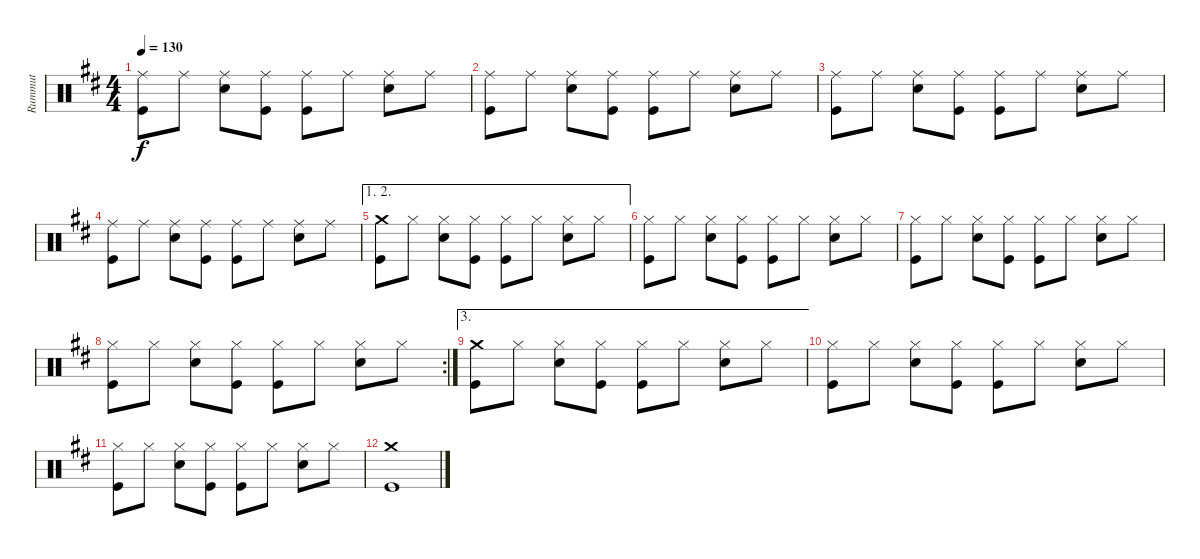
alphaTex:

\track ("Rummut" "Rummut") {instrument percussion}
\staff {score}
\articulation defaults
\ts (4 4)
\tempo 130
\clef neutral
\ks d
("Ride (middle)" "Kick (hit)").8{dy f} "Ride (middle)".8 ("Ride (middle)" "Electric Snare (hit)").8 ("Ride (middle)" "Kick (hit)").8 ("Ride (middle)" "Kick (hit)").8 "Ride (middle)".8 ("Ride (middle)" "Electric Snare (hit)").8 "Ride (middle)".8 |
("Ride (middle)" "Kick (hit)").8 "Ride (middle)".8 ("Ride (middle)" "Electric Snare (hit)").8 ("Ride (middle)" "Kick (hit)").8 ("Ride (middle)" "Kick (hit)").8 "Ride (middle)".8 ("Ride (middle)" "Electric Snare (hit)").8 "Ride (middle)".8 |
("Ride (middle)" "Kick (hit)").8 "Ride (middle)".8 ("Ride (middle)" "Electric Snare (hit)").8 ("Ride (middle)" "Kick (hit)").8 ("Ride (middle)" "Kick (hit)").8 "Ride (middle)".8 ("Ride (middle)" "Electric Snare (hit)").8 "Ride (middle)".8 |
("Ride (middle)" "Kick (hit)").8 "Ride (middle)".8 ("Ride (middle)" "Electric Snare (hit)").8 ("Ride (middle)" "Kick (hit)").8 ("Ride (middle)" "Kick (hit)").8 "Ride (middle)".8 ("Ride (middle)" "Electric Snare (hit)").8 "Ride (middle)".8 |
\ae (1 2)
("Crash medium (hit)" "Kick (hit)").8 "Hi-Hat (closed)".8 ("Hi-Hat (closed)" "Electric Snare (hit)").8 ("Hi-Hat (closed)" "Kick (hit)").8 ("Hi-Hat (closed)" "Kick (hit)").8 "Hi-Hat (closed)".8 ("Hi-Hat (closed)" "Electric Snare (hit)").8 "Hi-Hat (closed)".8 |
("Hi-Hat (closed)" "Kick (hit)").8 "Hi-Hat (closed)".8 ("Hi-Hat (closed)" "Electric Snare (hit)").8 ("Hi-Hat (closed)" "Kick (hit)").8 ("Hi-Hat (closed)" "Kick (hit)").8 "Hi-Hat (closed)".8 ("Hi-Hat (closed)" "Electric Snare (hit)").8 "Hi-Hat (closed)".8 |
("Hi-Hat (closed)" "Kick (hit)").8 "Hi-Hat (closed)".8 ("Hi-Hat (closed)" "Electric Snare (hit)").8 ("Hi-Hat (closed)" "Kick (hit)").8 ("Hi-Hat (closed)" "Kick (hit)").8 "Hi-Hat (closed)".8 ("Hi-Hat (closed)" "Electric Snare (hit)").8 "Hi-Hat (closed)".8 |
\rc 2
("Hi-Hat (closed)" "Kick (hit)").8 "Hi-Hat (closed)".8 ("Hi-Hat (closed)" "Electric Snare (hit)").8 ("Hi-Hat (closed)" "Kick (hit)").8 ("Hi-Hat (closed)" "Kick (hit)").8 "Hi-Hat (closed)".8 ("Hi-Hat (closed)" "Electric Snare (hit)").8 "Hi-Hat (closed)".8 |
\ae 3
("Crash medium (hit)" "Kick (hit)").8 "Hi-Hat (closed)".8 ("Hi-Hat (closed)" "Electric Snare (hit)").8 ("Hi-Hat (closed)" "Kick (hit)").8 ("Hi-Hat (closed)" "Kick (hit)").8 "Hi-Hat (closed)".8 ("Hi-Hat (closed)" "Electric Snare (hit)").8 "Hi-Hat (closed)".8 |
("Hi-Hat (closed)" "Kick (hit)").8 "Hi-Hat (closed)".8 ("Hi-Hat (closed)" "Electric Snare (hit)").8 ("Hi-Hat (closed)" "Kick (hit)").8 ("Hi-Hat (closed)" "Kick (hit)").8 "Hi-Hat (closed)".8 ("Hi-Hat (closed)" "Electric Snare (hit)").8 "Hi-Hat (closed)".8 |
("Hi-Hat (closed)" "Kick (hit)").8 "Hi-Hat (closed)".8 ("Hi-Hat (closed)" "Electric Snare (hit)").8 ("Hi-Hat (closed)" "Kick (hit)").8 ("Hi-Hat (closed)" "Kick (hit)").8 "Hi-Hat (closed)".8 ("Hi-Hat (closed)" "Electric Snare (hit)").8 "Hi-Hat (closed)".8 |
("Crash medium (hit)" "Kick (hit)").1
